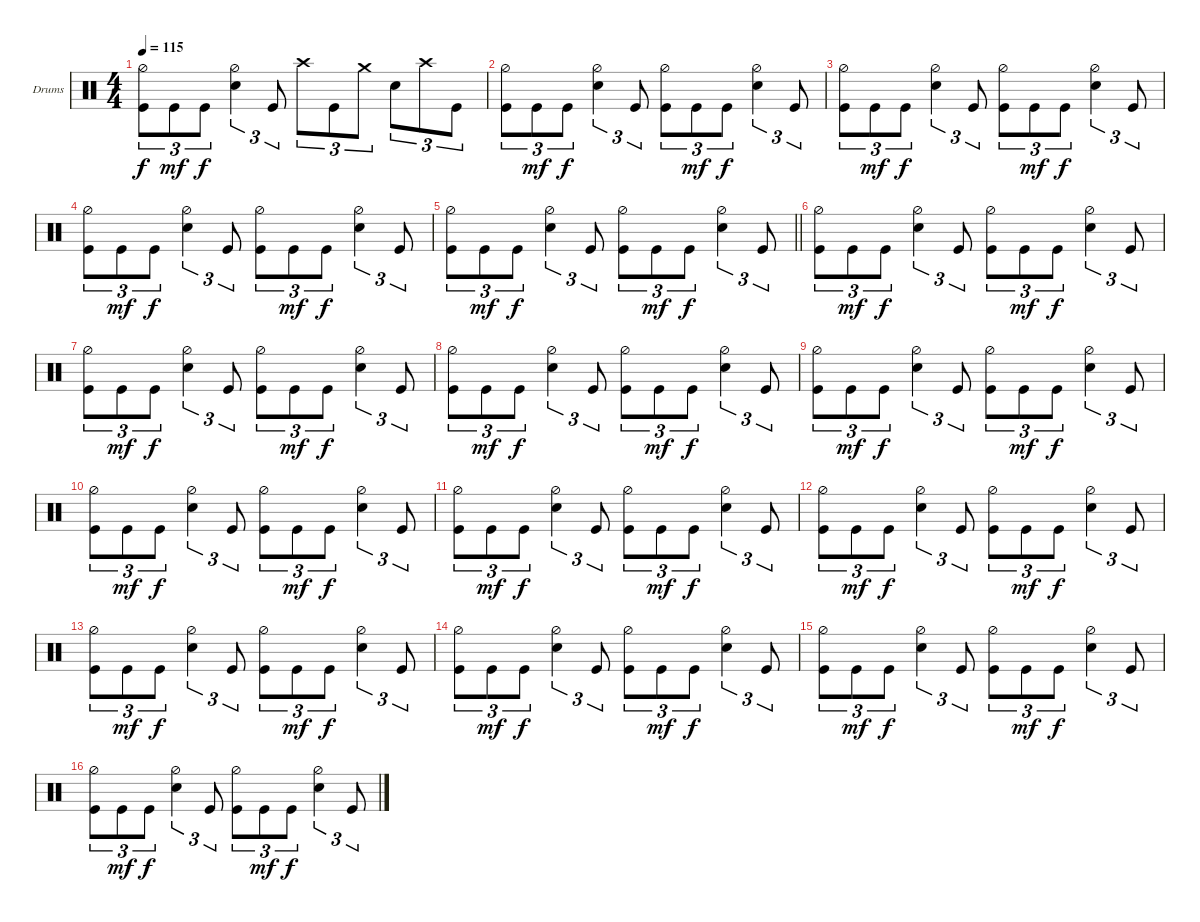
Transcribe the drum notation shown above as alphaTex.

\defaultSystemsLayout 4
\bracketExtendMode groupsimilarinstruments
\firstSystemTrackNameOrientation horizontal
\otherSystemsTrackNameOrientation horizontal
\track ("Drumkit" "Drums") {instrument percussion}
\staff {score}
\articulation defaults
\ts (4 4)
\tempo 115
\clef neutral
\ks aminor
("Kick (hit)" "Hi-Hat (half)").8{tu (3 2) dy f} "Kick (hit)".8{tu (3 2) dy mf} "Kick (hit)".8{tu (3 2) dy f} ("Snare (hit) 2" "Hi-Hat (half)").4{tu (3 2)} "Kick (hit)".8{tu (3 2)} "Crash high (hit)".8{tu (3 2)} "Kick (hit)".8{tu (3 2)} "Crash medium (hit)".8{tu (3 2)} "Snare (hit) 2".8{tu (3 2)} "Crash high (hit)".8{tu (3 2)} "Kick (hit)".8{tu (3 2)} |
("Kick (hit)" "Hi-Hat (half)").8{tu (3 2)} "Kick (hit)".8{tu (3 2) dy mf} "Kick (hit)".8{tu (3 2) dy f} ("Snare (hit) 2" "Hi-Hat (half)").4{tu (3 2)} "Kick (hit)".8{tu (3 2)} ("Kick (hit)" "Hi-Hat (half)").8{tu (3 2)} "Kick (hit)".8{tu (3 2) dy mf} "Kick (hit)".8{tu (3 2) dy f} ("Snare (hit) 2" "Hi-Hat (half)").4{tu (3 2)} "Kick (hit)".8{tu (3 2)} |
("Kick (hit)" "Hi-Hat (half)").8{tu (3 2)} "Kick (hit)".8{tu (3 2) dy mf} "Kick (hit)".8{tu (3 2) dy f} ("Snare (hit) 2" "Hi-Hat (half)").4{tu (3 2)} "Kick (hit)".8{tu (3 2)} ("Kick (hit)" "Hi-Hat (half)").8{tu (3 2)} "Kick (hit)".8{tu (3 2) dy mf} "Kick (hit)".8{tu (3 2) dy f} ("Snare (hit) 2" "Hi-Hat (half)").4{tu (3 2)} "Kick (hit)".8{tu (3 2)} |
("Kick (hit)" "Hi-Hat (half)").8{tu (3 2)} "Kick (hit)".8{tu (3 2) dy mf} "Kick (hit)".8{tu (3 2) dy f} ("Snare (hit) 2" "Hi-Hat (half)").4{tu (3 2)} "Kick (hit)".8{tu (3 2)} ("Kick (hit)" "Hi-Hat (half)").8{tu (3 2)} "Kick (hit)".8{tu (3 2) dy mf} "Kick (hit)".8{tu (3 2) dy f} ("Snare (hit) 2" "Hi-Hat (half)").4{tu (3 2)} "Kick (hit)".8{tu (3 2)} |
\barLineRight lightlight
("Kick (hit)" "Hi-Hat (half)").8{tu (3 2)} "Kick (hit)".8{tu (3 2) dy mf} "Kick (hit)".8{tu (3 2) dy f} ("Snare (hit) 2" "Hi-Hat (half)").4{tu (3 2)} "Kick (hit)".8{tu (3 2)} ("Kick (hit)" "Hi-Hat (half)").8{tu (3 2)} "Kick (hit)".8{tu (3 2) dy mf} "Kick (hit)".8{tu (3 2) dy f} ("Snare (hit) 2" "Hi-Hat (half)").4{tu (3 2)} "Kick (hit)".8{tu (3 2)} |
("Kick (hit)" "Hi-Hat (half)").8{tu (3 2)} "Kick (hit)".8{tu (3 2) dy mf} "Kick (hit)".8{tu (3 2) dy f} ("Snare (hit) 2" "Hi-Hat (half)").4{tu (3 2)} "Kick (hit)".8{tu (3 2)} ("Kick (hit)" "Hi-Hat (half)").8{tu (3 2)} "Kick (hit)".8{tu (3 2) dy mf} "Kick (hit)".8{tu (3 2) dy f} ("Snare (hit) 2" "Hi-Hat (half)").4{tu (3 2)} "Kick (hit)".8{tu (3 2)} |
("Kick (hit)" "Hi-Hat (half)").8{tu (3 2)} "Kick (hit)".8{tu (3 2) dy mf} "Kick (hit)".8{tu (3 2) dy f} ("Snare (hit) 2" "Hi-Hat (half)").4{tu (3 2)} "Kick (hit)".8{tu (3 2)} ("Kick (hit)" "Hi-Hat (half)").8{tu (3 2)} "Kick (hit)".8{tu (3 2) dy mf} "Kick (hit)".8{tu (3 2) dy f} ("Snare (hit) 2" "Hi-Hat (half)").4{tu (3 2)} "Kick (hit)".8{tu (3 2)} |
("Kick (hit)" "Hi-Hat (half)").8{tu (3 2)} "Kick (hit)".8{tu (3 2) dy mf} "Kick (hit)".8{tu (3 2) dy f} ("Snare (hit) 2" "Hi-Hat (half)").4{tu (3 2)} "Kick (hit)".8{tu (3 2)} ("Kick (hit)" "Hi-Hat (half)").8{tu (3 2)} "Kick (hit)".8{tu (3 2) dy mf} "Kick (hit)".8{tu (3 2) dy f} ("Snare (hit) 2" "Hi-Hat (half)").4{tu (3 2)} "Kick (hit)".8{tu (3 2)} |
("Kick (hit)" "Hi-Hat (half)").8{tu (3 2)} "Kick (hit)".8{tu (3 2) dy mf} "Kick (hit)".8{tu (3 2) dy f} ("Snare (hit) 2" "Hi-Hat (half)").4{tu (3 2)} "Kick (hit)".8{tu (3 2)} ("Kick (hit)" "Hi-Hat (half)").8{tu (3 2)} "Kick (hit)".8{tu (3 2) dy mf} "Kick (hit)".8{tu (3 2) dy f} ("Snare (hit) 2" "Hi-Hat (half)").4{tu (3 2)} "Kick (hit)".8{tu (3 2)} |
("Kick (hit)" "Hi-Hat (half)").8{tu (3 2)} "Kick (hit)".8{tu (3 2) dy mf} "Kick (hit)".8{tu (3 2) dy f} ("Snare (hit) 2" "Hi-Hat (half)").4{tu (3 2)} "Kick (hit)".8{tu (3 2)} ("Kick (hit)" "Hi-Hat (half)").8{tu (3 2)} "Kick (hit)".8{tu (3 2) dy mf} "Kick (hit)".8{tu (3 2) dy f} ("Snare (hit) 2" "Hi-Hat (half)").4{tu (3 2)} "Kick (hit)".8{tu (3 2)} |
("Kick (hit)" "Hi-Hat (half)").8{tu (3 2)} "Kick (hit)".8{tu (3 2) dy mf} "Kick (hit)".8{tu (3 2) dy f} ("Snare (hit) 2" "Hi-Hat (half)").4{tu (3 2)} "Kick (hit)".8{tu (3 2)} ("Kick (hit)" "Hi-Hat (half)").8{tu (3 2)} "Kick (hit)".8{tu (3 2) dy mf} "Kick (hit)".8{tu (3 2) dy f} ("Snare (hit) 2" "Hi-Hat (half)").4{tu (3 2)} "Kick (hit)".8{tu (3 2)} |
("Kick (hit)" "Hi-Hat (half)").8{tu (3 2)} "Kick (hit)".8{tu (3 2) dy mf} "Kick (hit)".8{tu (3 2) dy f} ("Snare (hit) 2" "Hi-Hat (half)").4{tu (3 2)} "Kick (hit)".8{tu (3 2)} ("Kick (hit)" "Hi-Hat (half)").8{tu (3 2)} "Kick (hit)".8{tu (3 2) dy mf} "Kick (hit)".8{tu (3 2) dy f} ("Snare (hit) 2" "Hi-Hat (half)").4{tu (3 2)} "Kick (hit)".8{tu (3 2)} |
("Kick (hit)" "Hi-Hat (half)").8{tu (3 2)} "Kick (hit)".8{tu (3 2) dy mf} "Kick (hit)".8{tu (3 2) dy f} ("Snare (hit) 2" "Hi-Hat (half)").4{tu (3 2)} "Kick (hit)".8{tu (3 2)} ("Kick (hit)" "Hi-Hat (half)").8{tu (3 2)} "Kick (hit)".8{tu (3 2) dy mf} "Kick (hit)".8{tu (3 2) dy f} ("Snare (hit) 2" "Hi-Hat (half)").4{tu (3 2)} "Kick (hit)".8{tu (3 2)} |
("Kick (hit)" "Hi-Hat (half)").8{tu (3 2)} "Kick (hit)".8{tu (3 2) dy mf} "Kick (hit)".8{tu (3 2) dy f} ("Snare (hit) 2" "Hi-Hat (half)").4{tu (3 2)} "Kick (hit)".8{tu (3 2)} ("Kick (hit)" "Hi-Hat (half)").8{tu (3 2)} "Kick (hit)".8{tu (3 2) dy mf} "Kick (hit)".8{tu (3 2) dy f} ("Snare (hit) 2" "Hi-Hat (half)").4{tu (3 2)} "Kick (hit)".8{tu (3 2)} |
("Kick (hit)" "Hi-Hat (half)").8{tu (3 2)} "Kick (hit)".8{tu (3 2) dy mf} "Kick (hit)".8{tu (3 2) dy f} ("Snare (hit) 2" "Hi-Hat (half)").4{tu (3 2)} "Kick (hit)".8{tu (3 2)} ("Kick (hit)" "Hi-Hat (half)").8{tu (3 2)} "Kick (hit)".8{tu (3 2) dy mf} "Kick (hit)".8{tu (3 2) dy f} ("Snare (hit) 2" "Hi-Hat (half)").4{tu (3 2)} "Kick (hit)".8{tu (3 2)} |
("Kick (hit)" "Hi-Hat (half)").8{tu (3 2)} "Kick (hit)".8{tu (3 2) dy mf} "Kick (hit)".8{tu (3 2) dy f} ("Snare (hit) 2" "Hi-Hat (half)").4{tu (3 2)} "Kick (hit)".8{tu (3 2)} ("Kick (hit)" "Hi-Hat (half)").8{tu (3 2)} "Kick (hit)".8{tu (3 2) dy mf} "Kick (hit)".8{tu (3 2) dy f} ("Snare (hit) 2" "Hi-Hat (half)").4{tu (3 2)} "Kick (hit)".8{tu (3 2)}
